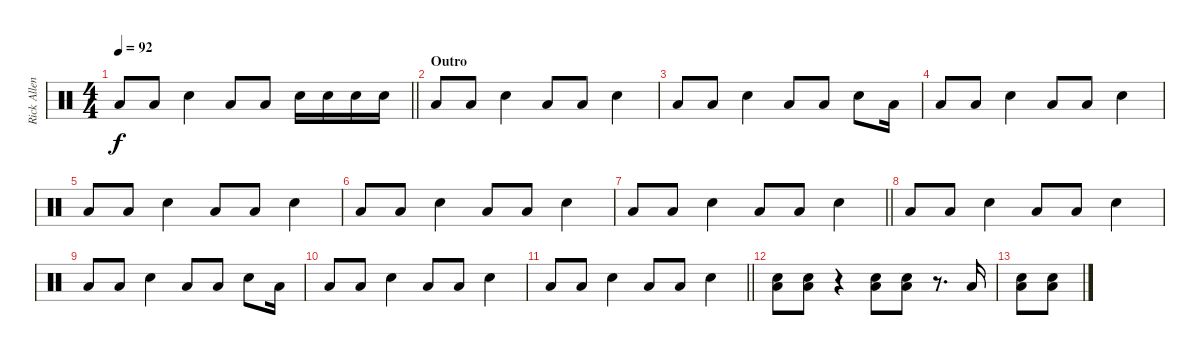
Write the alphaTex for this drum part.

\track ("Rick Allen" "Rick Allen") {instrument percussion}
\staff {score}
\articulation defaults
\ts (4 4)
\tempo 92
\clef neutral
\barLineRight lightlight
\ks c "Low Floor Tom (hit)".8{dy f} "Low Floor Tom (hit)".8 "Snare (hit) 2".4 "Low Floor Tom (hit)".8 "Low Floor Tom (hit)".8 "Snare (hit) 2".16 "Snare (hit) 2".16 "Snare (hit) 2".16 "Snare (hit) 2".16
|
\section ("" "Outro")
"Low Floor Tom (hit)".8 "Low Floor Tom (hit)".8 "Snare (hit) 2".4 "Low Floor Tom (hit)".8 "Low Floor Tom (hit)".8 "Snare (hit) 2".4 |
"Low Floor Tom (hit)".8 "Low Floor Tom (hit)".8 "Snare (hit) 2".4 "Low Floor Tom (hit)".8 "Low Floor Tom (hit)".8 "Snare (hit) 2".8 "Low Floor Tom (hit)".16 |
"Low Floor Tom (hit)".8 "Low Floor Tom (hit)".8 "Snare (hit) 2".4 "Low Floor Tom (hit)".8 "Low Floor Tom (hit)".8 "Snare (hit) 2".4 |
"Low Floor Tom (hit)".8 "Low Floor Tom (hit)".8 "Snare (hit) 2".4 "Low Floor Tom (hit)".8 "Low Floor Tom (hit)".8 "Snare (hit) 2".4 |
"Low Floor Tom (hit)".8 "Low Floor Tom (hit)".8 "Snare (hit) 2".4 "Low Floor Tom (hit)".8 "Low Floor Tom (hit)".8 "Snare (hit) 2".4 |
\barLineRight lightlight "Low Floor Tom (hit)".8 "Low Floor Tom (hit)".8 "Snare (hit) 2".4 "Low Floor Tom (hit)".8 "Low Floor Tom (hit)".8 "Snare (hit) 2".4
|
"Low Floor Tom (hit)".8 "Low Floor Tom (hit)".8 "Snare (hit) 2".4 "Low Floor Tom (hit)".8 "Low Floor Tom (hit)".8 "Snare (hit) 2".4 |
"Low Floor Tom (hit)".8 "Low Floor Tom (hit)".8 "Snare (hit) 2".4 "Low Floor Tom (hit)".8 "Low Floor Tom (hit)".8 "Snare (hit) 2".8 "Low Floor Tom (hit)".16 |
"Low Floor Tom (hit)".8 "Low Floor Tom (hit)".8 "Snare (hit) 2".4 "Low Floor Tom (hit)".8 "Low Floor Tom (hit)".8 "Snare (hit) 2".4 |
\barLineRight lightlight "Low Floor Tom (hit)".8 "Low Floor Tom (hit)".8 "Snare (hit) 2".4 "Low Floor Tom (hit)".8 "Low Floor Tom (hit)".8 "Snare (hit) 2".4
|
("Snare (hit) 2" "Low Floor Tom (hit)").8 ("Snare (hit) 2" "Low Floor Tom (hit)").8 r.4 ("Snare (hit) 2" "Low Floor Tom (hit)").8 ("Snare (hit) 2" "Low Floor Tom (hit)").8 r.8{d} "Low Floor Tom (hit)".16 |
("Snare (hit) 2" "Low Floor Tom (hit)").8 ("Snare (hit) 2" "Low Floor Tom (hit)").8
